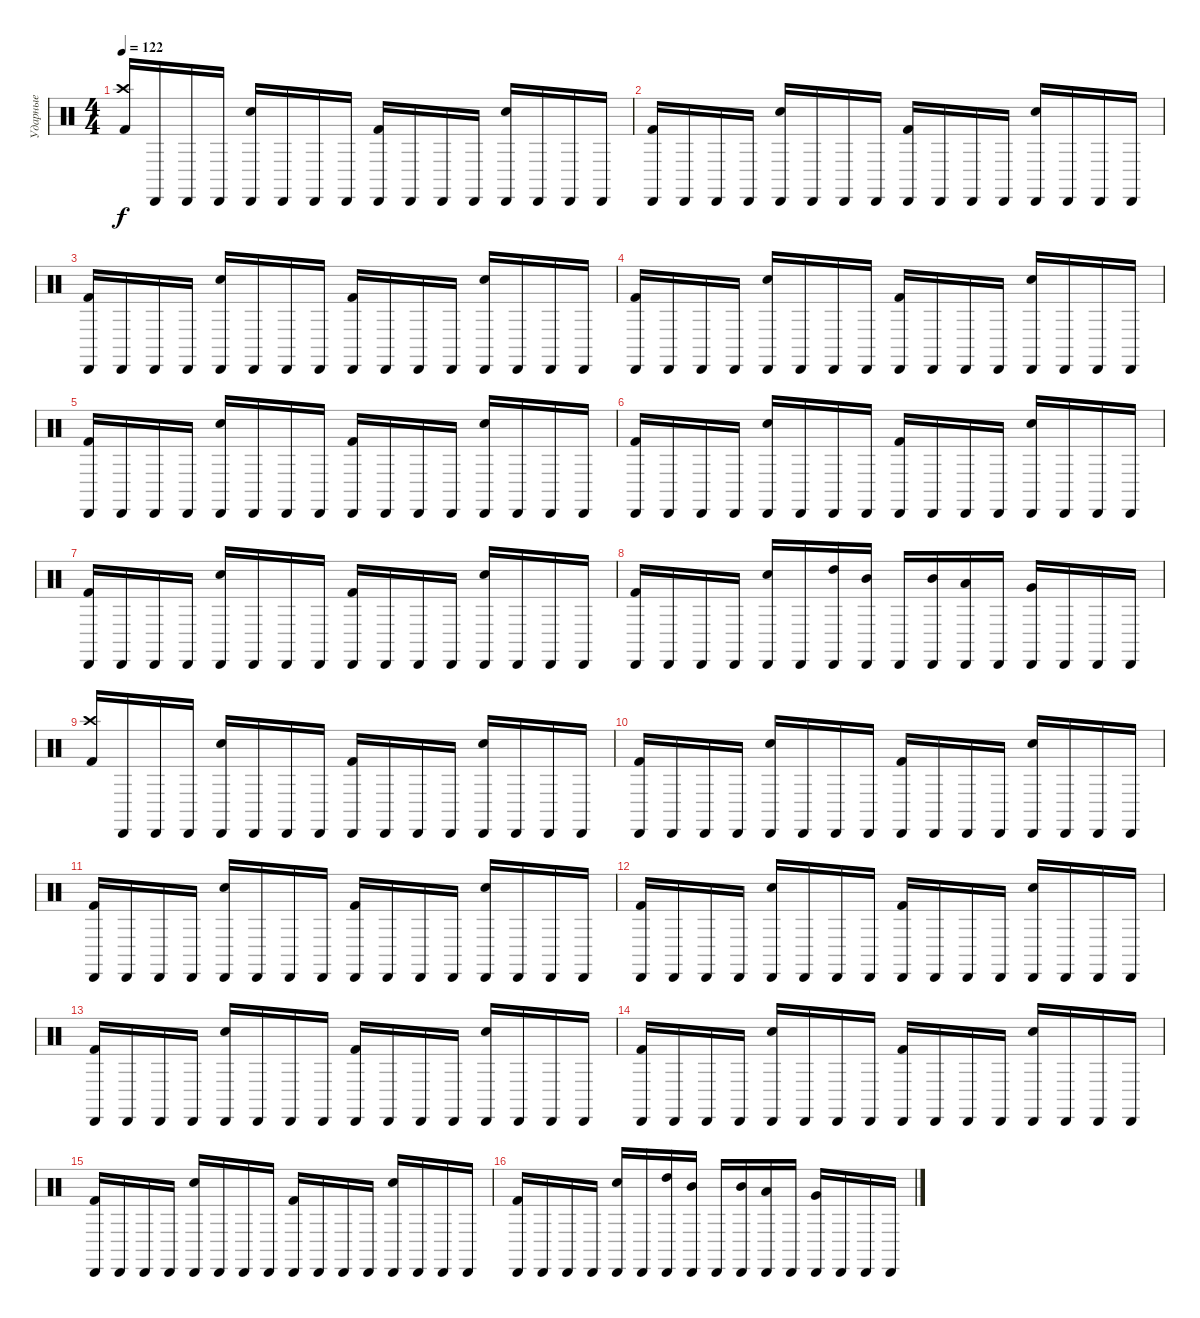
\track ("Ударные" "Ударные") {instrument percussion}
\staff {score}
\articulation defaults
\ts (4 4)
\tempo 122
\clef neutral
\ks c
("Crash high (hit)" "Kick (hit) 2").16{dy f} "Cabasa (hit)".16 "Cabasa (hit)".16 "Cabasa (hit)".16 ("Cabasa (hit)" "Snare (hit) 2").16 "Cabasa (hit)".16 "Cabasa (hit)".16 "Cabasa (hit)".16 ("Cabasa (hit)" "Kick (hit) 2").16 "Cabasa (hit)".16 "Cabasa (hit)".16 "Cabasa (hit)".16 ("Cabasa (hit)" "Snare (hit) 2").16 "Cabasa (hit)".16 "Cabasa (hit)".16 "Cabasa (hit)".16 |
("Cabasa (hit)" "Kick (hit) 2").16 "Cabasa (hit)".16 "Cabasa (hit)".16 "Cabasa (hit)".16 ("Cabasa (hit)" "Snare (hit) 2").16 "Cabasa (hit)".16 "Cabasa (hit)".16 "Cabasa (hit)".16 ("Cabasa (hit)" "Kick (hit) 2").16 "Cabasa (hit)".16 "Cabasa (hit)".16 "Cabasa (hit)".16 ("Cabasa (hit)" "Snare (hit) 2").16 "Cabasa (hit)".16 "Cabasa (hit)".16 "Cabasa (hit)".16 |
("Cabasa (hit)" "Kick (hit) 2").16 "Cabasa (hit)".16 "Cabasa (hit)".16 "Cabasa (hit)".16 ("Cabasa (hit)" "Snare (hit) 2").16 "Cabasa (hit)".16 "Cabasa (hit)".16 "Cabasa (hit)".16 ("Cabasa (hit)" "Kick (hit) 2").16 "Cabasa (hit)".16 "Cabasa (hit)".16 "Cabasa (hit)".16 ("Cabasa (hit)" "Snare (hit) 2").16 "Cabasa (hit)".16 "Cabasa (hit)".16 "Cabasa (hit)".16 |
("Cabasa (hit)" "Kick (hit) 2").16 "Cabasa (hit)".16 "Cabasa (hit)".16 "Cabasa (hit)".16 ("Cabasa (hit)" "Snare (hit) 2").16 "Cabasa (hit)".16 "Cabasa (hit)".16 "Cabasa (hit)".16 ("Cabasa (hit)" "Kick (hit) 2").16 "Cabasa (hit)".16 "Cabasa (hit)".16 "Cabasa (hit)".16 ("Cabasa (hit)" "Snare (hit) 2").16 "Cabasa (hit)".16 "Cabasa (hit)".16 "Cabasa (hit)".16 |
("Cabasa (hit)" "Kick (hit) 2").16 "Cabasa (hit)".16 "Cabasa (hit)".16 "Cabasa (hit)".16 ("Cabasa (hit)" "Snare (hit) 2").16 "Cabasa (hit)".16 "Cabasa (hit)".16 "Cabasa (hit)".16 ("Cabasa (hit)" "Kick (hit) 2").16 "Cabasa (hit)".16 "Cabasa (hit)".16 "Cabasa (hit)".16 ("Cabasa (hit)" "Snare (hit) 2").16 "Cabasa (hit)".16 "Cabasa (hit)".16 "Cabasa (hit)".16 |
("Cabasa (hit)" "Kick (hit) 2").16 "Cabasa (hit)".16 "Cabasa (hit)".16 "Cabasa (hit)".16 ("Cabasa (hit)" "Snare (hit) 2").16 "Cabasa (hit)".16 "Cabasa (hit)".16 "Cabasa (hit)".16 ("Cabasa (hit)" "Kick (hit) 2").16 "Cabasa (hit)".16 "Cabasa (hit)".16 "Cabasa (hit)".16 ("Cabasa (hit)" "Snare (hit) 2").16 "Cabasa (hit)".16 "Cabasa (hit)".16 "Cabasa (hit)".16 |
("Cabasa (hit)" "Kick (hit) 2").16 "Cabasa (hit)".16 "Cabasa (hit)".16 "Cabasa (hit)".16 ("Cabasa (hit)" "Snare (hit) 2").16 "Cabasa (hit)".16 "Cabasa (hit)".16 "Cabasa (hit)".16 ("Cabasa (hit)" "Kick (hit) 2").16 "Cabasa (hit)".16 "Cabasa (hit)".16 "Cabasa (hit)".16 ("Cabasa (hit)" "Snare (hit) 2").16 "Cabasa (hit)".16 "Cabasa (hit)".16 "Cabasa (hit)".16 |
("Cabasa (hit)" "Kick (hit) 2").16 "Cabasa (hit)".16 "Cabasa (hit)".16 "Cabasa (hit)".16 ("Cabasa (hit)" "Snare (hit) 2").16 "Cabasa (hit)".16 ("Cabasa (hit)" "High Tom (hit)").16 ("Cabasa (hit)" "Mid Tom (hit)").16 "Cabasa (hit)".16 ("Cabasa (hit)" "Mid Tom (hit)").16 ("Cabasa (hit)" "Low Tom (hit)").16 "Cabasa (hit)".16 ("Cabasa (hit)" "Very Low Tom (hit)").16 "Cabasa (hit)".16 "Cabasa (hit)".16 "Cabasa (hit)".16 |
("Crash high (hit)" "Kick (hit) 2").16 "Cabasa (hit)".16 "Cabasa (hit)".16 "Cabasa (hit)".16 ("Cabasa (hit)" "Snare (hit) 2").16 "Cabasa (hit)".16 "Cabasa (hit)".16 "Cabasa (hit)".16 ("Cabasa (hit)" "Kick (hit) 2").16 "Cabasa (hit)".16 "Cabasa (hit)".16 "Cabasa (hit)".16 ("Cabasa (hit)" "Snare (hit) 2").16 "Cabasa (hit)".16 "Cabasa (hit)".16 "Cabasa (hit)".16 |
("Cabasa (hit)" "Kick (hit) 2").16 "Cabasa (hit)".16 "Cabasa (hit)".16 "Cabasa (hit)".16 ("Cabasa (hit)" "Snare (hit) 2").16 "Cabasa (hit)".16 "Cabasa (hit)".16 "Cabasa (hit)".16 ("Cabasa (hit)" "Kick (hit) 2").16 "Cabasa (hit)".16 "Cabasa (hit)".16 "Cabasa (hit)".16 ("Cabasa (hit)" "Snare (hit) 2").16 "Cabasa (hit)".16 "Cabasa (hit)".16 "Cabasa (hit)".16 |
("Cabasa (hit)" "Kick (hit) 2").16 "Cabasa (hit)".16 "Cabasa (hit)".16 "Cabasa (hit)".16 ("Cabasa (hit)" "Snare (hit) 2").16 "Cabasa (hit)".16 "Cabasa (hit)".16 "Cabasa (hit)".16 ("Cabasa (hit)" "Kick (hit) 2").16 "Cabasa (hit)".16 "Cabasa (hit)".16 "Cabasa (hit)".16 ("Cabasa (hit)" "Snare (hit) 2").16 "Cabasa (hit)".16 "Cabasa (hit)".16 "Cabasa (hit)".16 |
("Cabasa (hit)" "Kick (hit) 2").16 "Cabasa (hit)".16 "Cabasa (hit)".16 "Cabasa (hit)".16 ("Cabasa (hit)" "Snare (hit) 2").16 "Cabasa (hit)".16 "Cabasa (hit)".16 "Cabasa (hit)".16 ("Cabasa (hit)" "Kick (hit) 2").16 "Cabasa (hit)".16 "Cabasa (hit)".16 "Cabasa (hit)".16 ("Cabasa (hit)" "Snare (hit) 2").16 "Cabasa (hit)".16 "Cabasa (hit)".16 "Cabasa (hit)".16 |
("Cabasa (hit)" "Kick (hit) 2").16 "Cabasa (hit)".16 "Cabasa (hit)".16 "Cabasa (hit)".16 ("Cabasa (hit)" "Snare (hit) 2").16 "Cabasa (hit)".16 "Cabasa (hit)".16 "Cabasa (hit)".16 ("Cabasa (hit)" "Kick (hit) 2").16 "Cabasa (hit)".16 "Cabasa (hit)".16 "Cabasa (hit)".16 ("Cabasa (hit)" "Snare (hit) 2").16 "Cabasa (hit)".16 "Cabasa (hit)".16 "Cabasa (hit)".16 |
("Cabasa (hit)" "Kick (hit) 2").16 "Cabasa (hit)".16 "Cabasa (hit)".16 "Cabasa (hit)".16 ("Cabasa (hit)" "Snare (hit) 2").16 "Cabasa (hit)".16 "Cabasa (hit)".16 "Cabasa (hit)".16 ("Cabasa (hit)" "Kick (hit) 2").16 "Cabasa (hit)".16 "Cabasa (hit)".16 "Cabasa (hit)".16 ("Cabasa (hit)" "Snare (hit) 2").16 "Cabasa (hit)".16 "Cabasa (hit)".16 "Cabasa (hit)".16 |
("Cabasa (hit)" "Kick (hit) 2").16 "Cabasa (hit)".16 "Cabasa (hit)".16 "Cabasa (hit)".16 ("Cabasa (hit)" "Snare (hit) 2").16 "Cabasa (hit)".16 "Cabasa (hit)".16 "Cabasa (hit)".16 ("Cabasa (hit)" "Kick (hit) 2").16 "Cabasa (hit)".16 "Cabasa (hit)".16 "Cabasa (hit)".16 ("Cabasa (hit)" "Snare (hit) 2").16 "Cabasa (hit)".16 "Cabasa (hit)".16 "Cabasa (hit)".16 |
("Cabasa (hit)" "Kick (hit) 2").16 "Cabasa (hit)".16 "Cabasa (hit)".16 "Cabasa (hit)".16 ("Cabasa (hit)" "Snare (hit) 2").16 "Cabasa (hit)".16 ("Cabasa (hit)" "High Tom (hit)").16 ("Cabasa (hit)" "Mid Tom (hit)").16 "Cabasa (hit)".16 ("Cabasa (hit)" "Mid Tom (hit)").16 ("Cabasa (hit)" "Low Tom (hit)").16 "Cabasa (hit)".16 ("Cabasa (hit)" "Very Low Tom (hit)").16 "Cabasa (hit)".16 "Cabasa (hit)".16 "Cabasa (hit)".16
